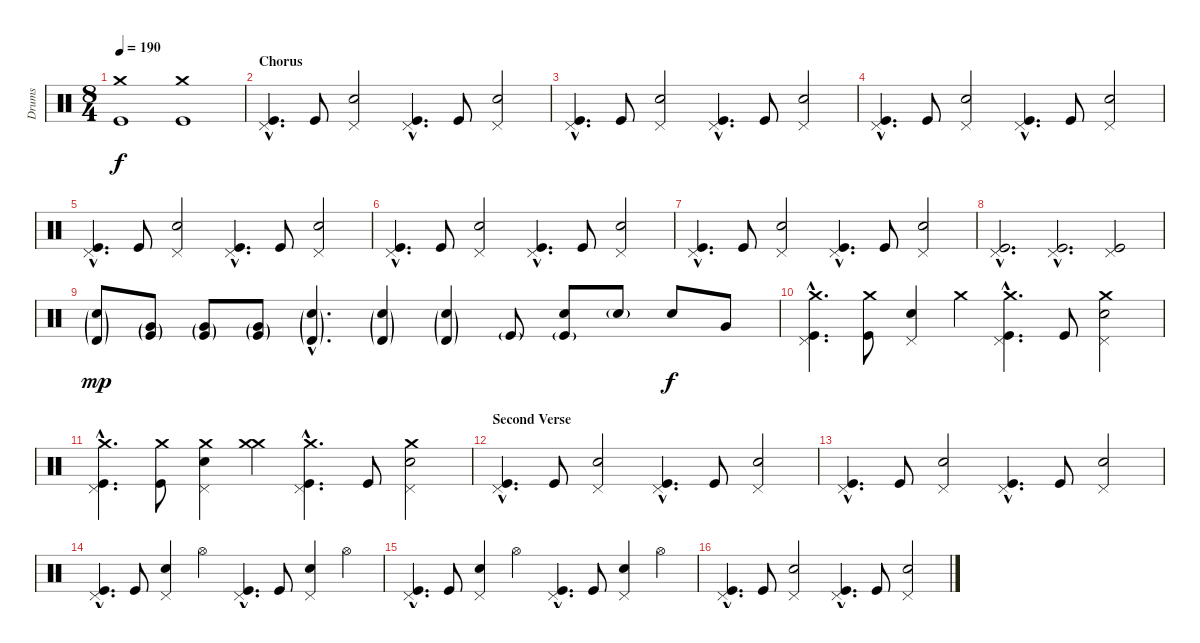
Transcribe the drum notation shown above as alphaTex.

\track ("Drums" "Drums") {instrument percussion}
\staff {score}
\articulation defaults
\ts (8 4)
\tempo 190
\clef neutral
\ks c
("Crash medium (hit)" "Kick (hit)").1{dy f} ("Crash medium (hit)" "Kick (hit)").1 |
\section ("" "Chorus")
("Pedal Hi-Hat (hit)"{hac} "Kick (hit)"{hac}).4{d} "Kick (hit)".8 ("Pedal Hi-Hat (hit)" "Electric Snare (hit)").2 ("Pedal Hi-Hat (hit)"{hac} "Kick (hit)"{hac}).4{d} "Kick (hit)".8 ("Pedal Hi-Hat (hit)" "Electric Snare (hit)").2 |
("Pedal Hi-Hat (hit)"{hac} "Kick (hit)"{hac}).4{d} "Kick (hit)".8 ("Pedal Hi-Hat (hit)" "Electric Snare (hit)").2 ("Pedal Hi-Hat (hit)"{hac} "Kick (hit)"{hac}).4{d} "Kick (hit)".8 ("Pedal Hi-Hat (hit)" "Electric Snare (hit)").2 |
("Pedal Hi-Hat (hit)"{hac} "Kick (hit)"{hac}).4{d} "Kick (hit)".8 ("Pedal Hi-Hat (hit)" "Electric Snare (hit)").2 ("Pedal Hi-Hat (hit)"{hac} "Kick (hit)"{hac}).4{d} "Kick (hit)".8 ("Pedal Hi-Hat (hit)" "Electric Snare (hit)").2 |
("Pedal Hi-Hat (hit)"{hac} "Kick (hit)"{hac}).4{d} "Kick (hit)".8 ("Pedal Hi-Hat (hit)" "Electric Snare (hit)").2 ("Pedal Hi-Hat (hit)"{hac} "Kick (hit)"{hac}).4{d} "Kick (hit)".8 ("Pedal Hi-Hat (hit)" "Electric Snare (hit)").2 |
("Pedal Hi-Hat (hit)"{hac} "Kick (hit)"{hac}).4{d} "Kick (hit)".8 ("Pedal Hi-Hat (hit)" "Electric Snare (hit)").2 ("Pedal Hi-Hat (hit)"{hac} "Kick (hit)"{hac}).4{d} "Kick (hit)".8 ("Pedal Hi-Hat (hit)" "Electric Snare (hit)").2 |
("Pedal Hi-Hat (hit)"{hac} "Kick (hit)"{hac}).4{d} "Kick (hit)".8 ("Pedal Hi-Hat (hit)" "Electric Snare (hit)").2 ("Pedal Hi-Hat (hit)"{hac} "Kick (hit)"{hac}).4{d} "Kick (hit)".8 ("Pedal Hi-Hat (hit)" "Electric Snare (hit)").2 |
("Pedal Hi-Hat (hit)"{hac} "Kick (hit)"{hac}).2{d} ("Pedal Hi-Hat (hit)"{hac} "Kick (hit)"{hac}).2{d} ("Pedal Hi-Hat (hit)" "Kick (hit)").2 |
("Timbale high (hit)"{g} "Electric Snare (hit)"{g}).8{dy mp} ("Very Low Tom (hit)"{g} "Kick (hit)"{g}).8 ("Very Low Tom (hit)"{g} "Kick (hit)"{g}).8 ("Very Low Tom (hit)"{g} "Kick (hit)"{g}).8 ("Electric Snare (hit)"{g hac} "Timbale high (hit)"{g hac}).4{d} ("Electric Snare (hit)"{g} "Timbale high (hit)"{g}).4 ("Electric Snare (hit)"{g} "Timbale high (hit)"{g}).4 "Kick (hit)"{g}.8 ("Electric Snare (hit)" "Kick (hit)"{g}).8 "Electric Snare (hit)"{g}.8 "Electric Snare (hit)".8{dy f} "Very Low Tom (hit)".8 |
("Crash medium (hit)"{hac} "Pedal Hi-Hat (hit)"{hac} "Kick (hit)"{hac}).4{d} ("Crash medium (hit)" "Kick (hit)").8 ("Pedal Hi-Hat (hit)" "Electric Snare (hit)").4 "Crash medium (hit)".4 ("Pedal Hi-Hat (hit)"{hac} "Crash medium (hit)"{hac} "Kick (hit)"{hac}).4{d} "Kick (hit)".8 ("Pedal Hi-Hat (hit)" "Electric Snare (hit)" "Crash medium (hit)").2 |
("Crash medium (hit)"{hac} "Pedal Hi-Hat (hit)"{hac} "Kick (hit)"{hac}).4{d} ("Crash medium (hit)" "Kick (hit)").8 ("Pedal Hi-Hat (hit)" "Electric Snare (hit)" "Crash medium (hit)").4 ("Crash medium (hit)" "Crash medium (hit)").4 ("Pedal Hi-Hat (hit)"{hac} "Crash medium (hit)"{hac} "Kick (hit)"{hac}).4{d} "Kick (hit)".8 ("Pedal Hi-Hat (hit)" "Electric Snare (hit)" "Crash medium (hit)").2 |
\section ("" "Second Verse")
("Pedal Hi-Hat (hit)"{hac} "Kick (hit)"{hac}).4{d} "Kick (hit)".8 ("Pedal Hi-Hat (hit)" "Electric Snare (hit)").2 ("Pedal Hi-Hat (hit)"{hac} "Kick (hit)"{hac}).4{d} "Kick (hit)".8 ("Pedal Hi-Hat (hit)" "Electric Snare (hit)").2 |
("Pedal Hi-Hat (hit)"{hac} "Kick (hit)"{hac}).4{d} "Kick (hit)".8 ("Pedal Hi-Hat (hit)" "Electric Snare (hit)").2 ("Pedal Hi-Hat (hit)"{hac} "Kick (hit)"{hac}).4{d} "Kick (hit)".8 ("Pedal Hi-Hat (hit)" "Electric Snare (hit)").2 |
("Pedal Hi-Hat (hit)"{hac} "Kick (hit)"{hac}).4{d} "Kick (hit)".8 ("Pedal Hi-Hat (hit)" "Electric Snare (hit)").4 "Hi-Hat (open)".4 ("Pedal Hi-Hat (hit)"{hac} "Kick (hit)"{hac}).4{d} "Kick (hit)".8 ("Pedal Hi-Hat (hit)" "Electric Snare (hit)").4 "Hi-Hat (open)".4 |
("Pedal Hi-Hat (hit)"{hac} "Kick (hit)"{hac}).4{d} "Kick (hit)".8 ("Pedal Hi-Hat (hit)" "Electric Snare (hit)").4 "Hi-Hat (open)".4 ("Pedal Hi-Hat (hit)"{hac} "Kick (hit)"{hac}).4{d} "Kick (hit)".8 ("Pedal Hi-Hat (hit)" "Electric Snare (hit)").4 "Hi-Hat (open)".4 |
("Pedal Hi-Hat (hit)"{hac} "Kick (hit)"{hac}).4{d} "Kick (hit)".8 ("Pedal Hi-Hat (hit)" "Electric Snare (hit)").2 ("Pedal Hi-Hat (hit)"{hac} "Kick (hit)"{hac}).4{d} "Kick (hit)".8 ("Pedal Hi-Hat (hit)" "Electric Snare (hit)").2
